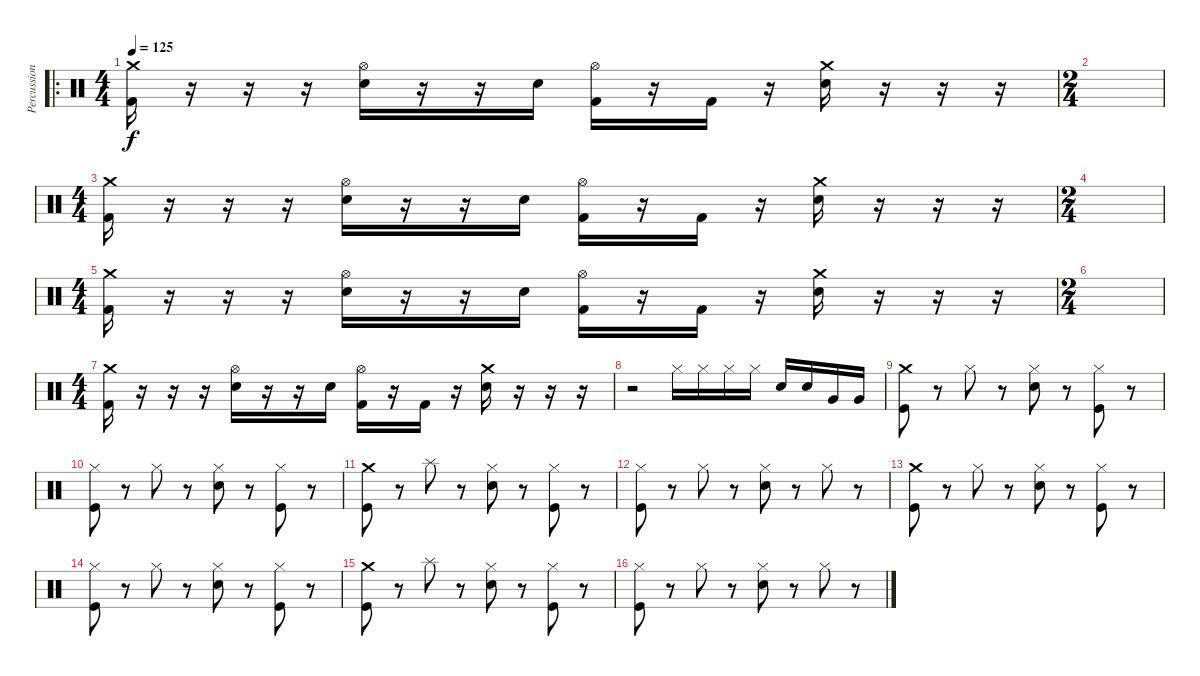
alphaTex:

\track ("Percussion" "Percussion") {instrument percussion}
\staff {score}
\articulation defaults
\ro
\ts (4 4)
\tempo 125
\clef neutral
\ks c
("Crash medium (hit)" "Kick (hit) 2").16{dy f} r.16 r.16 r.16 ("Hi-Hat (open)" "Electric Snare (hit)").16 r.16 r.16 "Electric Snare (hit)".16 ("Hi-Hat (open)" "Kick (hit) 2").16 r.16 "Kick (hit) 2".16 r.16 ("Crash medium (hit)" "Electric Snare (hit)").16 r.16 r.16 r.16 |
\ts (2 4)
|
\ts (4 4)
("Crash medium (hit)" "Kick (hit) 2").16 r.16 r.16 r.16 ("Hi-Hat (open)" "Electric Snare (hit)").16 r.16 r.16 "Electric Snare (hit)".16 ("Hi-Hat (open)" "Kick (hit) 2").16 r.16 "Kick (hit) 2".16 r.16 ("Crash medium (hit)" "Electric Snare (hit)").16 r.16 r.16 r.16 |
\ts (2 4)
|
\ts (4 4)
("Crash medium (hit)" "Kick (hit) 2").16 r.16 r.16 r.16 ("Hi-Hat (open)" "Electric Snare (hit)").16 r.16 r.16 "Electric Snare (hit)".16 ("Hi-Hat (open)" "Kick (hit) 2").16 r.16 "Kick (hit) 2".16 r.16 ("Crash medium (hit)" "Electric Snare (hit)").16 r.16 r.16 r.16 |
\ts (2 4)
|
\ts (4 4)
("Crash medium (hit)" "Kick (hit) 2").16 r.16 r.16 r.16 ("Hi-Hat (open)" "Electric Snare (hit)").16 r.16 r.16 "Electric Snare (hit)".16 ("Hi-Hat (open)" "Kick (hit) 2").16 r.16 "Kick (hit) 2".16 r.16 ("Crash medium (hit)" "Electric Snare (hit)").16 r.16 r.16 r.16 |
r.2 "Hi-Hat (closed)".16 "Hi-Hat (closed)".16 "Hi-Hat (closed)".16 "Hi-Hat (closed)".16 "Electric Snare (hit)".16 "Electric Snare (hit)".16 "Very Low Tom (hit)".16 "Very Low Tom (hit)".16 |
("Crash medium (hit)" "Kick (hit)").8 r.8 "Hi-Hat (closed)".8 r.8 ("Hi-Hat (closed)" "Electric Snare (hit)").8 r.8 ("Hi-Hat (closed)" "Kick (hit)").8 r.8 |
("Hi-Hat (closed)" "Kick (hit)").8 r.8 "Hi-Hat (closed)".8 r.8 ("Hi-Hat (closed)" "Electric Snare (hit)").8 r.8 ("Hi-Hat (closed)" "Kick (hit)").8 r.8 |
("Crash medium (hit)" "Kick (hit)").8 r.8 "Splash (hit)".8 r.8 ("Hi-Hat (closed)" "Electric Snare (hit)").8 r.8 ("Hi-Hat (closed)" "Kick (hit)").8 r.8 |
("Hi-Hat (closed)" "Kick (hit)").8 r.8 "Hi-Hat (closed)".8 r.8 ("Hi-Hat (closed)" "Electric Snare (hit)").8 r.8 "Hi-Hat (closed)".8 r.8 |
("Crash medium (hit)" "Kick (hit)").8 r.8 "Hi-Hat (closed)".8 r.8 ("Hi-Hat (closed)" "Electric Snare (hit)").8 r.8 ("Hi-Hat (closed)" "Kick (hit)").8 r.8 |
("Hi-Hat (closed)" "Kick (hit)").8 r.8 "Hi-Hat (closed)".8 r.8 ("Hi-Hat (closed)" "Electric Snare (hit)").8 r.8 ("Hi-Hat (closed)" "Kick (hit)").8 r.8 |
("Crash medium (hit)" "Kick (hit)").8 r.8 "Splash (hit)".8 r.8 ("Hi-Hat (closed)" "Electric Snare (hit)").8 r.8 ("Hi-Hat (closed)" "Kick (hit)").8 r.8 |
("Hi-Hat (closed)" "Kick (hit)").8 r.8 "Hi-Hat (closed)".8 r.8 ("Hi-Hat (closed)" "Electric Snare (hit)").8 r.8 "Hi-Hat (closed)".8 r.8
